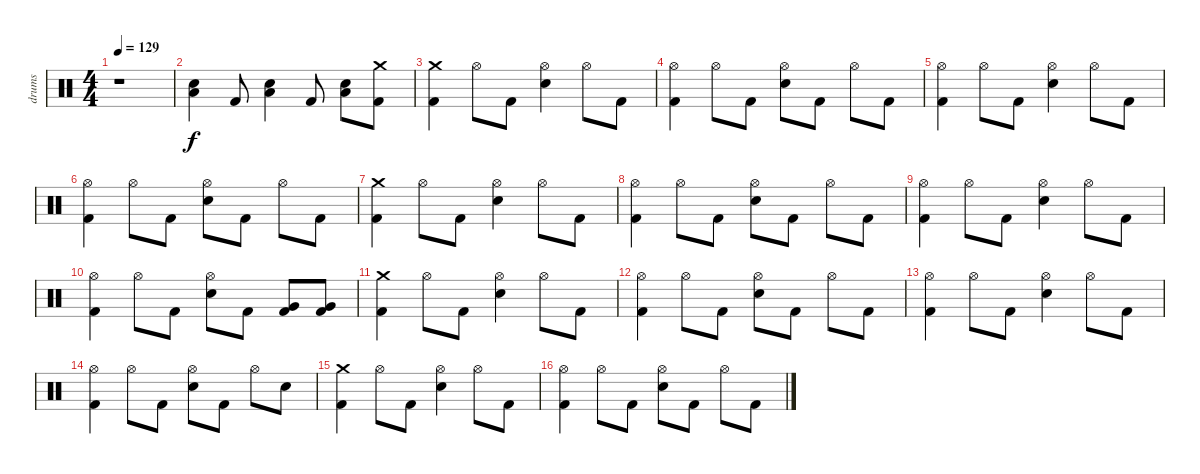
\track ("drums" "drums") {instrument percussion}
\staff {score}
\articulation defaults
\ts (4 4)
\tempo 129
\clef neutral
\ks c
r.1{dy f} |
("Low Tom (hit)" "Snare (hit) 2").4 "Kick (hit) 2".8 ("Low Tom (hit)" "Snare (hit) 2").4 "Kick (hit) 2".8 ("Low Tom (hit)" "Snare (hit) 2").8 ("Kick (hit) 2" "Crash medium (hit)").8 |
("Kick (hit) 2" "Crash medium (hit)").4 "Hi-Hat (open)".8 "Kick (hit) 2".8 ("Hi-Hat (open)" "Snare (hit) 2").4 "Hi-Hat (open)".8 "Kick (hit) 2".8 |
("Kick (hit) 2" "Hi-Hat (open)").4 "Hi-Hat (open)".8 "Kick (hit) 2".8 ("Hi-Hat (open)" "Snare (hit) 2").8 "Kick (hit) 2".8 "Hi-Hat (open)".8 "Kick (hit) 2".8 |
("Kick (hit) 2" "Hi-Hat (open)").4 "Hi-Hat (open)".8 "Kick (hit) 2".8 ("Hi-Hat (open)" "Snare (hit) 2").4 "Hi-Hat (open)".8 "Kick (hit) 2".8 |
("Kick (hit) 2" "Hi-Hat (open)").4 "Hi-Hat (open)".8 "Kick (hit) 2".8 ("Hi-Hat (open)" "Snare (hit) 2").8 "Kick (hit) 2".8 "Hi-Hat (open)".8 "Kick (hit) 2".8 |
("Kick (hit) 2" "Crash medium (hit)").4 "Hi-Hat (open)".8 "Kick (hit) 2".8 ("Hi-Hat (open)" "Snare (hit) 2").4 "Hi-Hat (open)".8 "Kick (hit) 2".8 |
("Kick (hit) 2" "Hi-Hat (open)").4 "Hi-Hat (open)".8 "Kick (hit) 2".8 ("Hi-Hat (open)" "Snare (hit) 2").8 "Kick (hit) 2".8 "Hi-Hat (open)".8 "Kick (hit) 2".8 |
("Kick (hit) 2" "Hi-Hat (open)").4 "Hi-Hat (open)".8 "Kick (hit) 2".8 ("Hi-Hat (open)" "Snare (hit) 2").4 "Hi-Hat (open)".8 "Kick (hit) 2".8 |
("Kick (hit) 2" "Hi-Hat (open)").4 "Hi-Hat (open)".8 "Kick (hit) 2".8 ("Hi-Hat (open)" "Snare (hit) 2").8 "Kick (hit) 2".8 ("Kick (hit) 2" "Very Low Tom (hit)").8 ("Kick (hit) 2" "Very Low Tom (hit)").8 |
("Kick (hit) 2" "Crash medium (hit)").4 "Hi-Hat (open)".8 "Kick (hit) 2".8 ("Hi-Hat (open)" "Snare (hit) 2").4 "Hi-Hat (open)".8 "Kick (hit) 2".8 |
("Kick (hit) 2" "Hi-Hat (open)").4 "Hi-Hat (open)".8 "Kick (hit) 2".8 ("Hi-Hat (open)" "Snare (hit) 2").8 "Kick (hit) 2".8 "Hi-Hat (open)".8 "Kick (hit) 2".8 |
("Kick (hit) 2" "Hi-Hat (open)").4 "Hi-Hat (open)".8 "Kick (hit) 2".8 ("Hi-Hat (open)" "Snare (hit) 2").4 "Hi-Hat (open)".8 "Kick (hit) 2".8 |
("Kick (hit) 2" "Hi-Hat (open)").4 "Hi-Hat (open)".8 "Kick (hit) 2".8 ("Hi-Hat (open)" "Snare (hit) 2").8 "Kick (hit) 2".8 "Hi-Hat (open)".8 "Snare (hit) 2".8 |
("Kick (hit) 2" "Crash medium (hit)").4 "Hi-Hat (open)".8 "Kick (hit) 2".8 ("Hi-Hat (open)" "Snare (hit) 2").4 "Hi-Hat (open)".8 "Kick (hit) 2".8 |
("Kick (hit) 2" "Hi-Hat (open)").4 "Hi-Hat (open)".8 "Kick (hit) 2".8 ("Hi-Hat (open)" "Snare (hit) 2").8 "Kick (hit) 2".8 "Hi-Hat (open)".8 "Kick (hit) 2".8
